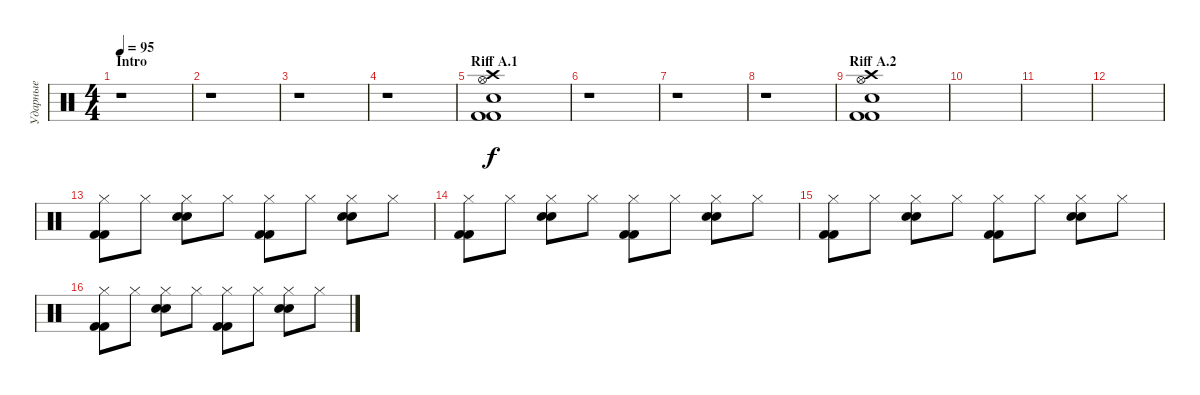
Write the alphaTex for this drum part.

\track ("Ударные" "Ударные") {instrument percussion}
\staff {score}
\articulation defaults
\ts (4 4)
\section ("" "Intro")
\tempo 95
\clef neutral
\ks c
r.1{dy f} |
r.1 |
r.1 |
r.1 |
\section ("" "Riff A.1")
("Crash high (hit)" "Hi-Hat (open)" "Snare (hit) 2" "Kick (hit) 2" "Kick (hit) 2").1 |
r.1 |
r.1 |
r.1 |
\section ("" "Riff A.2")
("Crash high (hit)" "Hi-Hat (open)" "Snare (hit) 2" "Kick (hit) 2" "Kick (hit) 2").1 |
|
|
|
("Hi-Hat (closed)" "Kick (hit) 2" "Kick (hit) 2").8 "Hi-Hat (closed)".8 ("Hi-Hat (closed)" "Snare (hit) 2" "Snare (hit) 2").8 "Hi-Hat (closed)".8 ("Hi-Hat (closed)" "Kick (hit) 2" "Kick (hit) 2").8 "Hi-Hat (closed)".8 ("Hi-Hat (closed)" "Snare (hit) 2" "Snare (hit) 2").8 "Hi-Hat (closed)".8 |
("Hi-Hat (closed)" "Kick (hit) 2" "Kick (hit) 2").8 "Hi-Hat (closed)".8 ("Hi-Hat (closed)" "Snare (hit) 2" "Snare (hit) 2").8 "Hi-Hat (closed)".8 ("Hi-Hat (closed)" "Kick (hit) 2" "Kick (hit) 2").8 "Hi-Hat (closed)".8 ("Hi-Hat (closed)" "Snare (hit) 2" "Snare (hit) 2").8 "Hi-Hat (closed)".8 |
("Hi-Hat (closed)" "Kick (hit) 2" "Kick (hit) 2").8 "Hi-Hat (closed)".8 ("Hi-Hat (closed)" "Snare (hit) 2" "Snare (hit) 2").8 "Hi-Hat (closed)".8 ("Hi-Hat (closed)" "Kick (hit) 2" "Kick (hit) 2").8 "Hi-Hat (closed)".8 ("Hi-Hat (closed)" "Snare (hit) 2" "Snare (hit) 2").8 "Hi-Hat (closed)".8 |
("Hi-Hat (closed)" "Kick (hit) 2" "Kick (hit) 2").8 "Hi-Hat (closed)".8 ("Hi-Hat (closed)" "Snare (hit) 2" "Snare (hit) 2").8 "Hi-Hat (closed)".8 ("Hi-Hat (closed)" "Kick (hit) 2" "Kick (hit) 2").8 "Hi-Hat (closed)".8 ("Hi-Hat (closed)" "Snare (hit) 2" "Snare (hit) 2").8 "Hi-Hat (closed)".8
